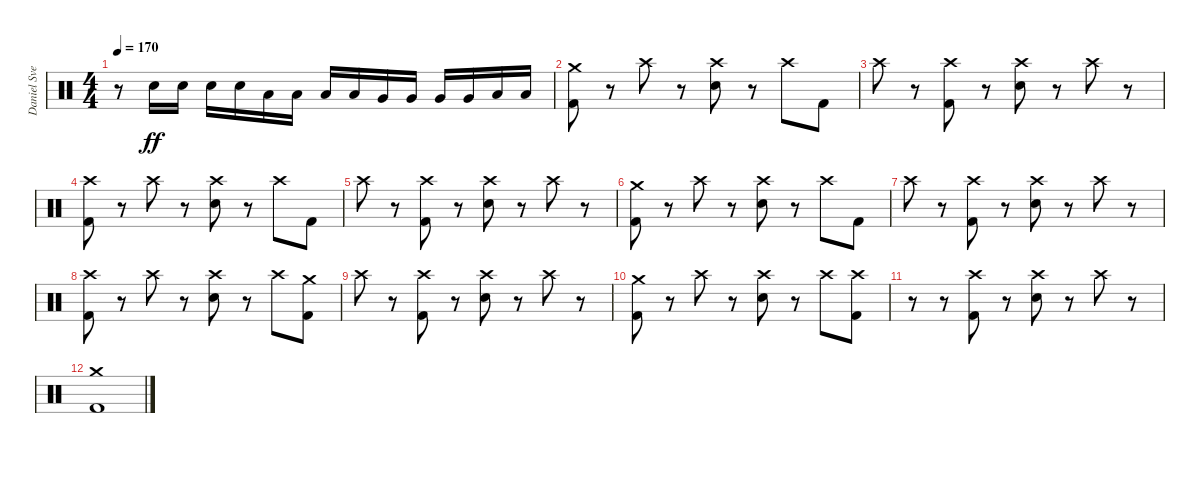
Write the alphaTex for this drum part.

\track ("Daniel Svensson" "Daniel Sve") {instrument percussion}
\staff {score}
\articulation defaults
\ts (4 4)
\tempo 170
\clef neutral
\ks c
r.8{dy ff} "Electric Snare (hit)".16 "Electric Snare (hit)".16 "Electric Snare (hit)".16 "Electric Snare (hit)".16 "Low Tom (hit)".16 "Low Tom (hit)".16 "Low Tom (hit)".16 "Low Tom (hit)".16 "Very Low Tom (hit)".16 "Very Low Tom (hit)".16 "Very Low Tom (hit)".16 "Very Low Tom (hit)".16 "Low Floor Tom (hit)".16 "Low Floor Tom (hit)".16 |
("Crash medium (hit)" "Kick (hit) 2").8 r.8 "Crash high (hit)".8 r.8 ("Crash high (hit)" "Electric Snare (hit)").8 r.8 "Crash high (hit)".8 "Kick (hit) 2".8 |
"Crash high (hit)".8 r.8 ("Crash high (hit)" "Kick (hit) 2").8 r.8 ("Crash high (hit)" "Electric Snare (hit)").8 r.8 "Crash high (hit)".8 r.8 |
("Crash high (hit)" "Kick (hit) 2").8 r.8 "Crash high (hit)".8 r.8 ("Crash high (hit)" "Electric Snare (hit)").8 r.8 "Crash high (hit)".8 "Kick (hit) 2".8 |
"Crash high (hit)".8 r.8 ("Crash high (hit)" "Kick (hit) 2").8 r.8 ("Crash high (hit)" "Electric Snare (hit)").8 r.8 "Crash high (hit)".8 r.8 |
("Crash medium (hit)" "Kick (hit) 2").8 r.8 "Crash high (hit)".8 r.8 ("Crash high (hit)" "Electric Snare (hit)").8 r.8 "Crash high (hit)".8 "Kick (hit) 2".8 |
"Crash high (hit)".8 r.8 ("Crash high (hit)" "Kick (hit) 2").8 r.8 ("Crash high (hit)" "Electric Snare (hit)").8 r.8 "Crash high (hit)".8 r.8 |
("Crash high (hit)" "Kick (hit) 2").8 r.8 "Crash high (hit)".8 r.8 ("Crash high (hit)" "Electric Snare (hit)").8 r.8 "Crash high (hit)".8 ("Crash medium (hit)" "Kick (hit) 2").8 |
"Crash high (hit)".8 r.8 ("Crash high (hit)" "Kick (hit) 2").8 r.8 ("Crash high (hit)" "Electric Snare (hit)").8 r.8 "Crash high (hit)".8 r.8 |
("Crash medium (hit)" "Kick (hit) 2").8 r.8 "Crash high (hit)".8 r.8 ("Crash high (hit)" "Electric Snare (hit)").8 r.8 "Crash high (hit)".8 ("Crash high (hit)" "Kick (hit) 2").8 |
r.8 r.8 ("Crash high (hit)" "Kick (hit) 2").8 r.8 ("Crash high (hit)" "Electric Snare (hit)").8 r.8 "Crash high (hit)".8 r.8 |
("Crash medium (hit)" "Kick (hit) 2").1
